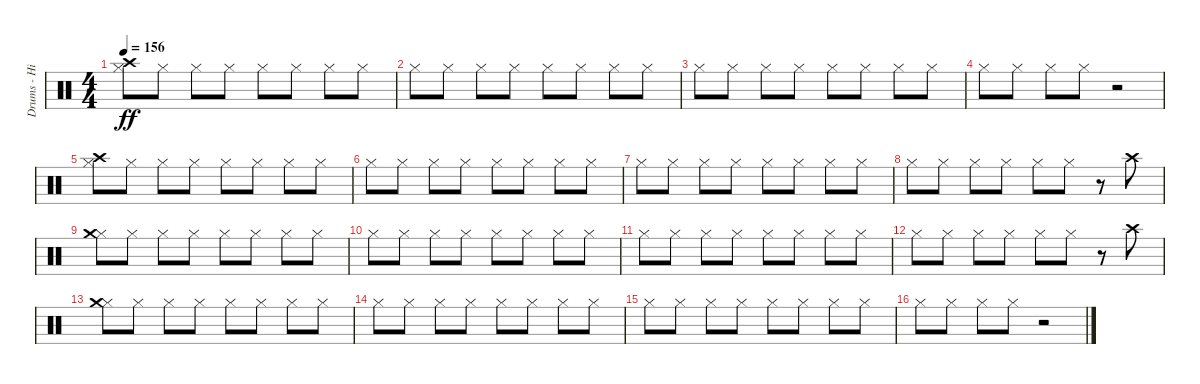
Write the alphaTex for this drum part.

\track ("Drums - Hi Hat/Cymbals" "Drums - Hi") {instrument percussion}
\staff {score}
\articulation defaults
\ts (4 4)
\tempo 156
\clef neutral
\ks c
("Hi-Hat (closed)" "Crash high (hit)").8{dy ff} "Hi-Hat (closed)".8 "Hi-Hat (closed)".8 "Hi-Hat (closed)".8 "Hi-Hat (closed)".8 "Hi-Hat (closed)".8 "Hi-Hat (closed)".8 "Hi-Hat (closed)".8 |
"Hi-Hat (closed)".8 "Hi-Hat (closed)".8 "Hi-Hat (closed)".8 "Hi-Hat (closed)".8 "Hi-Hat (closed)".8 "Hi-Hat (closed)".8 "Hi-Hat (closed)".8 "Hi-Hat (closed)".8 |
"Hi-Hat (closed)".8 "Hi-Hat (closed)".8 "Hi-Hat (closed)".8 "Hi-Hat (closed)".8 "Hi-Hat (closed)".8 "Hi-Hat (closed)".8 "Hi-Hat (closed)".8 "Hi-Hat (closed)".8 |
"Hi-Hat (closed)".8 "Hi-Hat (closed)".8 "Hi-Hat (closed)".8 "Hi-Hat (closed)".8 r.2 |
("Hi-Hat (closed)" "Crash high (hit)").8 "Hi-Hat (closed)".8 "Hi-Hat (closed)".8 "Hi-Hat (closed)".8 "Hi-Hat (closed)".8 "Hi-Hat (closed)".8 "Hi-Hat (closed)".8 "Hi-Hat (closed)".8 |
"Hi-Hat (closed)".8 "Hi-Hat (closed)".8 "Hi-Hat (closed)".8 "Hi-Hat (closed)".8 "Hi-Hat (closed)".8 "Hi-Hat (closed)".8 "Hi-Hat (closed)".8 "Hi-Hat (closed)".8 |
"Hi-Hat (closed)".8 "Hi-Hat (closed)".8 "Hi-Hat (closed)".8 "Hi-Hat (closed)".8 "Hi-Hat (closed)".8 "Hi-Hat (closed)".8 "Hi-Hat (closed)".8 "Hi-Hat (closed)".8 |
"Hi-Hat (closed)".8 "Hi-Hat (closed)".8 "Hi-Hat (closed)".8 "Hi-Hat (closed)".8 "Hi-Hat (closed)".8 "Hi-Hat (closed)".8 r.8 "Crash high (hit)".8 |
("Hi-Hat (closed)" "Crash medium (hit)").8 "Hi-Hat (closed)".8 "Hi-Hat (closed)".8 "Hi-Hat (closed)".8 "Hi-Hat (closed)".8 "Hi-Hat (closed)".8 "Hi-Hat (closed)".8 "Hi-Hat (closed)".8 |
"Hi-Hat (closed)".8 "Hi-Hat (closed)".8 "Hi-Hat (closed)".8 "Hi-Hat (closed)".8 "Hi-Hat (closed)".8 "Hi-Hat (closed)".8 "Hi-Hat (closed)".8 "Hi-Hat (closed)".8 |
"Hi-Hat (closed)".8 "Hi-Hat (closed)".8 "Hi-Hat (closed)".8 "Hi-Hat (closed)".8 "Hi-Hat (closed)".8 "Hi-Hat (closed)".8 "Hi-Hat (closed)".8 "Hi-Hat (closed)".8 |
"Hi-Hat (closed)".8 "Hi-Hat (closed)".8 "Hi-Hat (closed)".8 "Hi-Hat (closed)".8 "Hi-Hat (closed)".8 "Hi-Hat (closed)".8 r.8 "Crash high (hit)".8 |
("Hi-Hat (closed)" "Crash medium (hit)").8 "Hi-Hat (closed)".8 "Hi-Hat (closed)".8 "Hi-Hat (closed)".8 "Hi-Hat (closed)".8 "Hi-Hat (closed)".8 "Hi-Hat (closed)".8 "Hi-Hat (closed)".8 |
"Hi-Hat (closed)".8 "Hi-Hat (closed)".8 "Hi-Hat (closed)".8 "Hi-Hat (closed)".8 "Hi-Hat (closed)".8 "Hi-Hat (closed)".8 "Hi-Hat (closed)".8 "Hi-Hat (closed)".8 |
"Hi-Hat (closed)".8 "Hi-Hat (closed)".8 "Hi-Hat (closed)".8 "Hi-Hat (closed)".8 "Hi-Hat (closed)".8 "Hi-Hat (closed)".8 "Hi-Hat (closed)".8 "Hi-Hat (closed)".8 |
"Hi-Hat (closed)".8 "Hi-Hat (closed)".8 "Hi-Hat (closed)".8 "Hi-Hat (closed)".8 r.2
